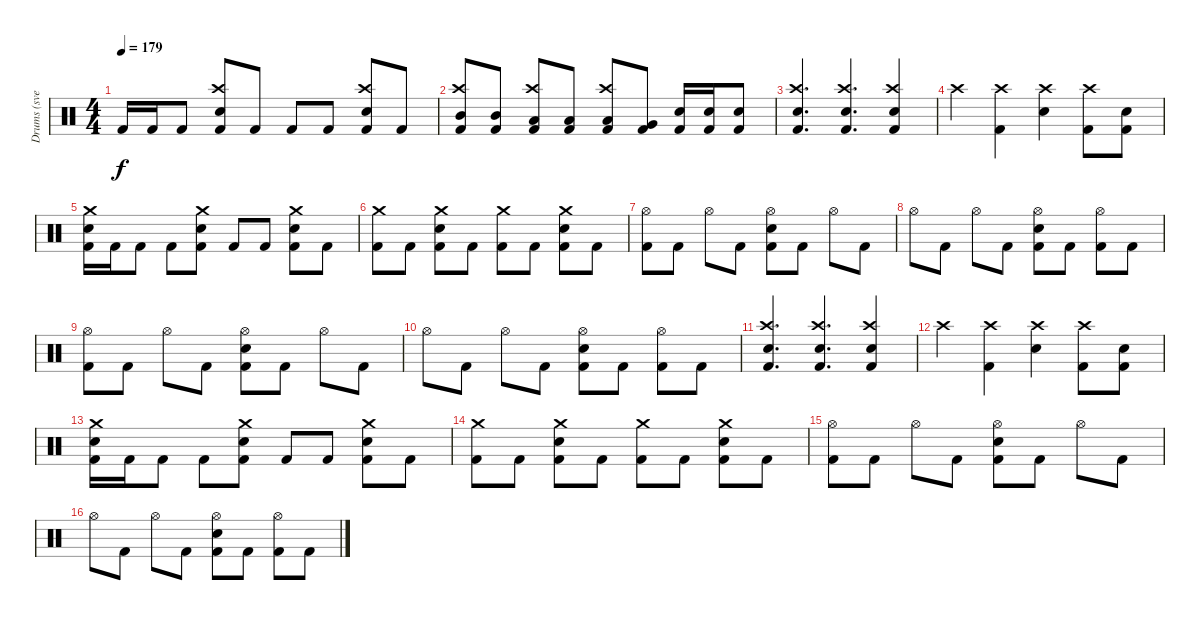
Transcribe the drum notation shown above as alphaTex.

\track ("Drums (svelle)" "Drums (sve") {instrument percussion}
\staff {score}
\articulation defaults
\ts (4 4)
\tempo 179
\clef neutral
\ks c "Kick (hit) 2".16{dy f} "Kick (hit) 2".16 "Kick (hit) 2".8
("Crash high (hit)" "Electric Snare (hit)" "Kick (hit) 2").8 "Kick (hit) 2".8 "Kick (hit) 2".8 "Kick (hit) 2".8 ("Crash high (hit)" "Electric Snare (hit)" "Kick (hit) 2").8 "Kick (hit) 2".8 |
("Crash high (hit)" "Mid Tom (hit)" "Kick (hit) 2").8 ("Mid Tom (hit)" "Kick (hit) 2").8 ("Crash high (hit)" "Low Tom (hit)" "Kick (hit) 2").8 ("Low Tom (hit)" "Kick (hit) 2").8 ("Crash high (hit)" "Low Tom (hit)" "Kick (hit) 2").8 ("Very Low Tom (hit)" "Kick (hit) 2").8 ("Electric Snare (hit)" "Kick (hit) 2").16 ("Electric Snare (hit)" "Kick (hit) 2").16 ("Electric Snare (hit)" "Kick (hit) 2").8 |
("Crash high (hit)" "Electric Snare (hit)" "Kick (hit) 2").4{d} ("Crash high (hit)" "Electric Snare (hit)" "Kick (hit) 2").4{d} ("Crash high (hit)" "Electric Snare (hit)" "Kick (hit) 2").4 |
"Crash high (hit)".4 ("Crash high (hit)" "Kick (hit) 2").4 ("Crash high (hit)" "Electric Snare (hit)").4 ("Crash high (hit)" "Kick (hit) 2").8 ("Electric Snare (hit)" "Kick (hit) 2").8 |
("Crash medium (hit)" "Electric Snare (hit)" "Kick (hit) 2").16 "Kick (hit) 2".16 "Kick (hit) 2".8 "Kick (hit) 2".8 ("Crash medium (hit)" "Electric Snare (hit)" "Kick (hit) 2").8 "Kick (hit) 2".8 "Kick (hit) 2".8 ("Crash medium (hit)" "Electric Snare (hit)" "Kick (hit) 2").8 "Kick (hit) 2".8 |
("Crash medium (hit)" "Kick (hit) 2").8 "Kick (hit) 2".8 ("Crash medium (hit)" "Electric Snare (hit)" "Kick (hit) 2").8 "Kick (hit) 2".8 ("Crash medium (hit)" "Kick (hit) 2").8 "Kick (hit) 2".8 ("Crash medium (hit)" "Electric Snare (hit)" "Kick (hit) 2").8 "Kick (hit) 2".8 |
("Hi-Hat (open)" "Kick (hit) 2").8 "Kick (hit) 2".8 "Hi-Hat (open)".8 "Kick (hit) 2".8 ("Hi-Hat (open)" "Electric Snare (hit)" "Kick (hit) 2").8 "Kick (hit) 2".8 "Hi-Hat (open)".8 "Kick (hit) 2".8 |
"Hi-Hat (open)".8 "Kick (hit) 2".8 "Hi-Hat (open)".8 "Kick (hit) 2".8 ("Hi-Hat (open)" "Electric Snare (hit)" "Kick (hit) 2").8 "Kick (hit) 2".8 ("Hi-Hat (open)" "Kick (hit) 2").8 "Kick (hit) 2".8 |
("Hi-Hat (open)" "Kick (hit) 2").8 "Kick (hit) 2".8 "Hi-Hat (open)".8 "Kick (hit) 2".8 ("Hi-Hat (open)" "Electric Snare (hit)" "Kick (hit) 2").8 "Kick (hit) 2".8 "Hi-Hat (open)".8 "Kick (hit) 2".8 |
"Hi-Hat (open)".8 "Kick (hit) 2".8 "Hi-Hat (open)".8 "Kick (hit) 2".8 ("Hi-Hat (open)" "Electric Snare (hit)" "Kick (hit) 2").8 "Kick (hit) 2".8 ("Hi-Hat (open)" "Kick (hit) 2").8 "Kick (hit) 2".8 |
("Crash high (hit)" "Electric Snare (hit)" "Kick (hit) 2").4{d} ("Crash high (hit)" "Electric Snare (hit)" "Kick (hit) 2").4{d} ("Crash high (hit)" "Electric Snare (hit)" "Kick (hit) 2").4 |
"Crash high (hit)".4 ("Crash high (hit)" "Kick (hit) 2").4 ("Crash high (hit)" "Electric Snare (hit)").4 ("Crash high (hit)" "Kick (hit) 2").8 ("Electric Snare (hit)" "Kick (hit) 2").8 |
("Crash medium (hit)" "Electric Snare (hit)" "Kick (hit) 2").16 "Kick (hit) 2".16 "Kick (hit) 2".8 "Kick (hit) 2".8 ("Crash medium (hit)" "Electric Snare (hit)" "Kick (hit) 2").8 "Kick (hit) 2".8 "Kick (hit) 2".8 ("Crash medium (hit)" "Electric Snare (hit)" "Kick (hit) 2").8 "Kick (hit) 2".8 |
("Crash medium (hit)" "Kick (hit) 2").8 "Kick (hit) 2".8 ("Crash medium (hit)" "Electric Snare (hit)" "Kick (hit) 2").8 "Kick (hit) 2".8 ("Crash medium (hit)" "Kick (hit) 2").8 "Kick (hit) 2".8 ("Crash medium (hit)" "Electric Snare (hit)" "Kick (hit) 2").8 "Kick (hit) 2".8 |
("Hi-Hat (open)" "Kick (hit) 2").8 "Kick (hit) 2".8 "Hi-Hat (open)".8 "Kick (hit) 2".8 ("Hi-Hat (open)" "Electric Snare (hit)" "Kick (hit) 2").8 "Kick (hit) 2".8 "Hi-Hat (open)".8 "Kick (hit) 2".8 |
"Hi-Hat (open)".8 "Kick (hit) 2".8 "Hi-Hat (open)".8 "Kick (hit) 2".8 ("Hi-Hat (open)" "Electric Snare (hit)" "Kick (hit) 2").8 "Kick (hit) 2".8 ("Hi-Hat (open)" "Kick (hit) 2").8 "Kick (hit) 2".8
